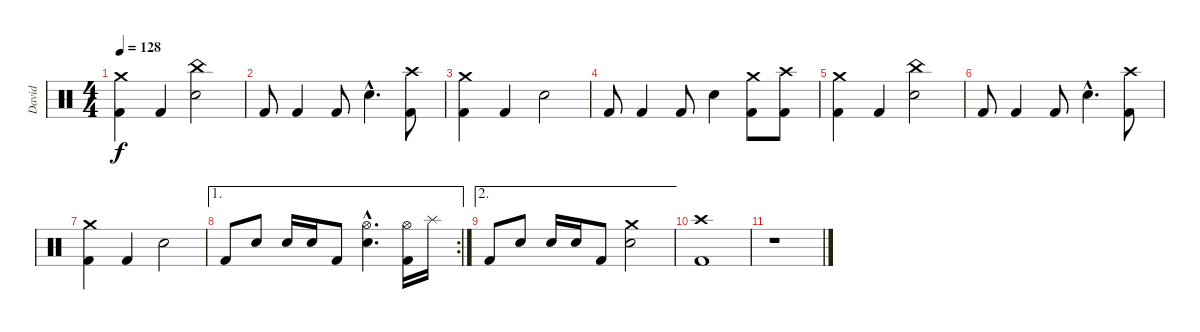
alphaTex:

\track ("David" "David") {instrument percussion}
\staff {score}
\articulation defaults
\ts (4 4)
\tempo 128
\clef neutral
\ks c
("Crash medium (hit)" "Kick (hit) 2").4{dy f} "Kick (hit) 2".4 ("China (hit)" "Snare (hit) 2").2 |
"Kick (hit) 2".8 "Kick (hit) 2".4 "Kick (hit) 2".8 "Snare (hit) 2"{hac}.4{d} ("Crash high (hit)" "Kick (hit) 2").8 |
("Crash medium (hit)" "Kick (hit) 2").4 "Kick (hit) 2".4 "Snare (hit) 2".2 |
"Kick (hit) 2".8 "Kick (hit) 2".4 "Kick (hit) 2".8 "Snare (hit) 2".4 ("Crash medium (hit)" "Kick (hit) 2").8 ("Crash high (hit)" "Kick (hit) 2").8 |
("Crash medium (hit)" "Kick (hit) 2").4 "Kick (hit) 2".4 ("China (hit)" "Snare (hit) 2").2 |
"Kick (hit) 2".8 "Kick (hit) 2".4 "Kick (hit) 2".8 "Snare (hit) 2"{hac}.4{d} ("Crash high (hit)" "Kick (hit) 2").8 |
("Crash medium (hit)" "Kick (hit) 2").4 "Kick (hit) 2".4 "Snare (hit) 2".2 |
\ae 1
\rc 2 "Kick (hit) 2".8 "Snare (hit) 2".8 "Snare (hit) 2".16 "Snare (hit) 2".16 "Kick (hit) 2".8
("Hi-Hat (open)"{hac} "Snare (hit) 2"{hac}).4{d} ("Hi-Hat (open)" "Kick (hit) 2").16 "Splash (hit)".16 |
\ae 2 "Kick (hit) 2".8 "Snare (hit) 2".8 "Snare (hit) 2".16 "Snare (hit) 2".16 "Kick (hit) 2".8
("Crash medium (hit)" "Snare (hit) 2").2 |
("Crash high (hit)" "Kick (hit) 2").1 |
r.1
